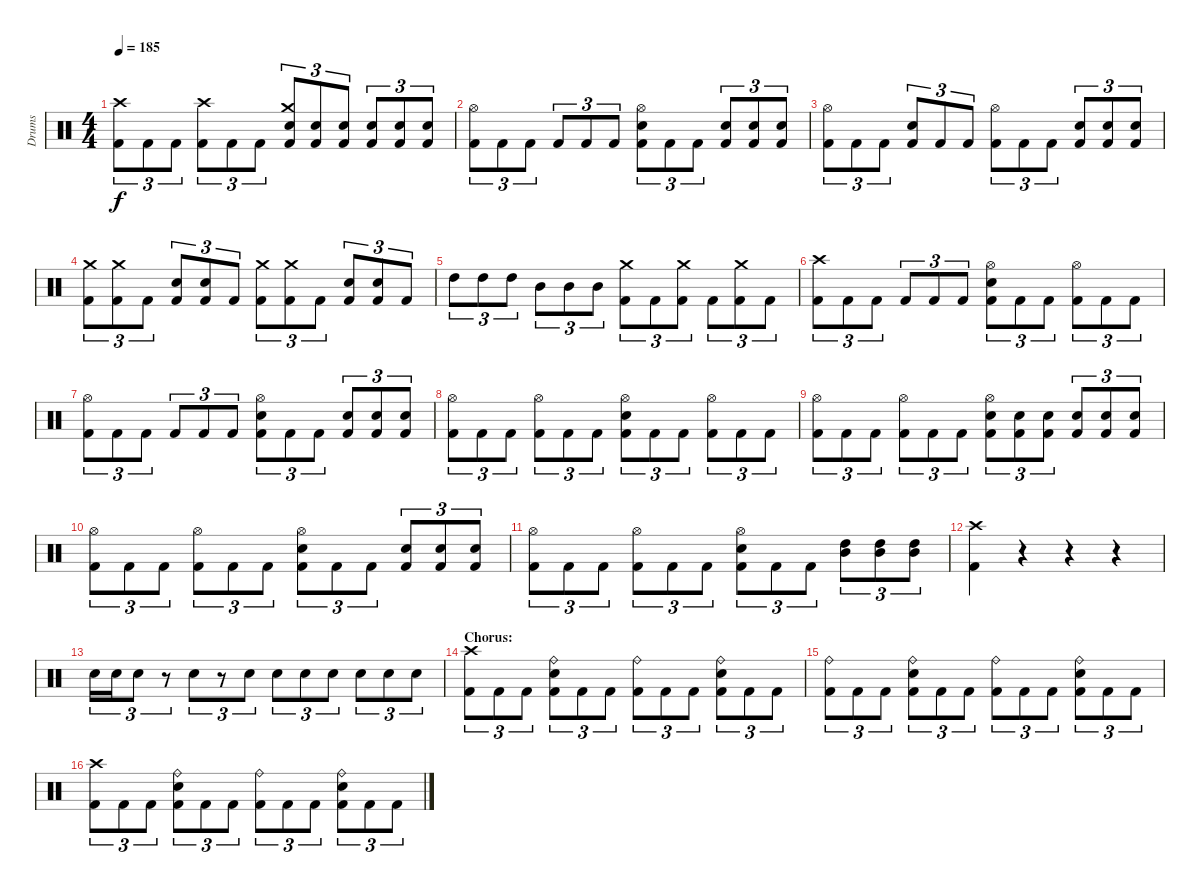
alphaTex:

\track ("Drums" "Drums") {instrument percussion}
\staff {score}
\articulation defaults
\ts (4 4)
\tempo 185
\clef neutral
\ks c
("Crash high (hit)" "Kick (hit) 2").8{tu (3 2) dy f} "Kick (hit) 2".8{tu (3 2)} "Kick (hit) 2".8{tu (3 2)} ("Crash high (hit)" "Kick (hit) 2").8{tu (3 2)} "Kick (hit) 2".8{tu (3 2)} "Kick (hit) 2".8{tu (3 2)} ("Crash medium (hit)" "Electric Snare (hit)" "Kick (hit) 2").8{tu (3 2)} ("Electric Snare (hit)" "Kick (hit) 2").8{tu (3 2)} ("Electric Snare (hit)" "Kick (hit) 2").8{tu (3 2)} ("Electric Snare (hit)" "Kick (hit) 2").8{tu (3 2)} ("Electric Snare (hit)" "Kick (hit) 2").8{tu (3 2)} ("Electric Snare (hit)" "Kick (hit) 2").8{tu (3 2)} |
("Hi-Hat (open)" "Kick (hit) 2").8{tu (3 2)} "Kick (hit) 2".8{tu (3 2)} "Kick (hit) 2".8{tu (3 2)} "Kick (hit) 2".8{tu (3 2)} "Kick (hit) 2".8{tu (3 2)} "Kick (hit) 2".8{tu (3 2)} ("Hi-Hat (open)" "Electric Snare (hit)" "Kick (hit) 2").8{tu (3 2)} "Kick (hit) 2".8{tu (3 2)} "Kick (hit) 2".8{tu (3 2)} ("Electric Snare (hit)" "Kick (hit) 2").8{tu (3 2)} ("Electric Snare (hit)" "Kick (hit) 2").8{tu (3 2)} ("Electric Snare (hit)" "Kick (hit) 2").8{tu (3 2)} |
("Hi-Hat (open)" "Kick (hit) 2").8{tu (3 2)} "Kick (hit) 2".8{tu (3 2)} "Kick (hit) 2".8{tu (3 2)} ("Electric Snare (hit)" "Kick (hit) 2").8{tu (3 2)} "Kick (hit) 2".8{tu (3 2)} "Kick (hit) 2".8{tu (3 2)} ("Hi-Hat (open)" "Kick (hit) 2").8{tu (3 2)} "Kick (hit) 2".8{tu (3 2)} "Kick (hit) 2".8{tu (3 2)} ("Electric Snare (hit)" "Kick (hit) 2").8{tu (3 2)} ("Electric Snare (hit)" "Kick (hit) 2").8{tu (3 2)} ("Electric Snare (hit)" "Kick (hit) 2").8{tu (3 2)} |
("Crash medium (hit)" "Kick (hit) 2").8{tu (3 2)} ("Crash medium (hit)" "Kick (hit) 2").8{tu (3 2)} "Kick (hit) 2".8{tu (3 2)} ("Electric Snare (hit)" "Kick (hit) 2").8{tu (3 2)} ("Electric Snare (hit)" "Kick (hit) 2").8{tu (3 2)} "Kick (hit) 2".8{tu (3 2)} ("Crash medium (hit)" "Kick (hit) 2").8{tu (3 2)} ("Crash medium (hit)" "Kick (hit) 2").8{tu (3 2)} "Kick (hit) 2".8{tu (3 2)} ("Electric Snare (hit)" "Kick (hit) 2").8{tu (3 2)} ("Electric Snare (hit)" "Kick (hit) 2").8{tu (3 2)} "Kick (hit) 2".8{tu (3 2)} |
"High Tom (hit)".8{tu (3 2)} "High Tom (hit)".8{tu (3 2)} "High Tom (hit)".8{tu (3 2)} "Mid Tom (hit)".8{tu (3 2)} "Mid Tom (hit)".8{tu (3 2)} "Mid Tom (hit)".8{tu (3 2)} ("Crash medium (hit)" "Kick (hit) 2").8{tu (3 2)} "Kick (hit) 2".8{tu (3 2)} ("Crash medium (hit)" "Kick (hit) 2").8{tu (3 2)} "Kick (hit) 2".8{tu (3 2)} ("Crash medium (hit)" "Kick (hit) 2").8{tu (3 2)} "Kick (hit) 2".8{tu (3 2)} |
("Crash high (hit)" "Kick (hit) 2").8{tu (3 2)} "Kick (hit) 2".8{tu (3 2)} "Kick (hit) 2".8{tu (3 2)} "Kick (hit) 2".8{tu (3 2)} "Kick (hit) 2".8{tu (3 2)} "Kick (hit) 2".8{tu (3 2)} ("Hi-Hat (open)" "Electric Snare (hit)" "Kick (hit) 2").8{tu (3 2)} "Kick (hit) 2".8{tu (3 2)} "Kick (hit) 2".8{tu (3 2)} ("Hi-Hat (open)" "Kick (hit) 2").8{tu (3 2)} "Kick (hit) 2".8{tu (3 2)} "Kick (hit) 2".8{tu (3 2)} |
("Hi-Hat (open)" "Kick (hit) 2").8{tu (3 2)} "Kick (hit) 2".8{tu (3 2)} "Kick (hit) 2".8{tu (3 2)} "Kick (hit) 2".8{tu (3 2)} "Kick (hit) 2".8{tu (3 2)} "Kick (hit) 2".8{tu (3 2)} ("Hi-Hat (open)" "Electric Snare (hit)" "Kick (hit) 2").8{tu (3 2)} "Kick (hit) 2".8{tu (3 2)} "Kick (hit) 2".8{tu (3 2)} ("Electric Snare (hit)" "Kick (hit) 2").8{tu (3 2)} ("Electric Snare (hit)" "Kick (hit) 2").8{tu (3 2)} ("Electric Snare (hit)" "Kick (hit) 2").8{tu (3 2)} |
("Hi-Hat (open)" "Kick (hit) 2").8{tu (3 2)} "Kick (hit) 2".8{tu (3 2)} "Kick (hit) 2".8{tu (3 2)} ("Hi-Hat (open)" "Kick (hit) 2").8{tu (3 2)} "Kick (hit) 2".8{tu (3 2)} "Kick (hit) 2".8{tu (3 2)} ("Hi-Hat (open)" "Electric Snare (hit)" "Kick (hit) 2").8{tu (3 2)} "Kick (hit) 2".8{tu (3 2)} "Kick (hit) 2".8{tu (3 2)} ("Hi-Hat (open)" "Kick (hit) 2").8{tu (3 2)} "Kick (hit) 2".8{tu (3 2)} "Kick (hit) 2".8{tu (3 2)} |
("Hi-Hat (open)" "Kick (hit) 2").8{tu (3 2)} "Kick (hit) 2".8{tu (3 2)} "Kick (hit) 2".8{tu (3 2)} ("Hi-Hat (open)" "Kick (hit) 2").8{tu (3 2)} "Kick (hit) 2".8{tu (3 2)} "Kick (hit) 2".8{tu (3 2)} ("Hi-Hat (open)" "Electric Snare (hit)" "Kick (hit) 2").8{tu (3 2)} ("Electric Snare (hit)" "Kick (hit) 2").8{tu (3 2)} ("Electric Snare (hit)" "Kick (hit) 2").8{tu (3 2)} ("Electric Snare (hit)" "Kick (hit) 2").8{tu (3 2)} ("Electric Snare (hit)" "Kick (hit) 2").8{tu (3 2)} ("Electric Snare (hit)" "Kick (hit) 2").8{tu (3 2)} |
("Hi-Hat (open)" "Kick (hit) 2").8{tu (3 2)} "Kick (hit) 2".8{tu (3 2)} "Kick (hit) 2".8{tu (3 2)} ("Hi-Hat (open)" "Kick (hit) 2").8{tu (3 2)} "Kick (hit) 2".8{tu (3 2)} "Kick (hit) 2".8{tu (3 2)} ("Hi-Hat (open)" "Electric Snare (hit)" "Kick (hit) 2").8{tu (3 2)} "Kick (hit) 2".8{tu (3 2)} "Kick (hit) 2".8{tu (3 2)} ("Electric Snare (hit)" "Kick (hit) 2").8{tu (3 2)} ("Electric Snare (hit)" "Kick (hit) 2").8{tu (3 2)} ("Electric Snare (hit)" "Kick (hit) 2").8{tu (3 2)} |
("Hi-Hat (open)" "Kick (hit) 2").8{tu (3 2)} "Kick (hit) 2".8{tu (3 2)} "Kick (hit) 2".8{tu (3 2)} ("Hi-Hat (open)" "Kick (hit) 2").8{tu (3 2)} "Kick (hit) 2".8{tu (3 2)} "Kick (hit) 2".8{tu (3 2)} ("Hi-Hat (open)" "Electric Snare (hit)" "Kick (hit) 2").8{tu (3 2)} "Kick (hit) 2".8{tu (3 2)} "Kick (hit) 2".8{tu (3 2)} ("High Tom (hit)" "Mid Tom (hit)").8{tu (3 2)} ("High Tom (hit)" "Mid Tom (hit)").8{tu (3 2)} ("High Tom (hit)" "Mid Tom (hit)").8{tu (3 2)} |
("Crash high (hit)" "Kick (hit) 2").4 r.4 r.4 r.4 |
"Electric Snare (hit)".16{tu (3 2)} "Electric Snare (hit)".16{tu (3 2)} "Electric Snare (hit)".8{tu (3 2)} r.8{tu (3 2)} "Electric Snare (hit)".8{tu (3 2)} r.8{tu (3 2)} "Electric Snare (hit)".8{tu (3 2)} "Electric Snare (hit)".8{tu (3 2)} "Electric Snare (hit)".8{tu (3 2)} "Electric Snare (hit)".8{tu (3 2)} "Electric Snare (hit)".8{tu (3 2)} "Electric Snare (hit)".8{tu (3 2)} "Electric Snare (hit)".8{tu (3 2)} |
\section ("" "Chorus:")
("Crash high (hit)" "Kick (hit) 2").8{tu (3 2)} "Kick (hit) 2".8{tu (3 2)} "Kick (hit) 2".8{tu (3 2)} ("Ride (bell)" "Electric Snare (hit)" "Kick (hit) 2").8{tu (3 2)} "Kick (hit) 2".8{tu (3 2)} "Kick (hit) 2".8{tu (3 2)} ("Ride (bell)" "Kick (hit) 2").8{tu (3 2)} "Kick (hit) 2".8{tu (3 2)} "Kick (hit) 2".8{tu (3 2)} ("Ride (bell)" "Electric Snare (hit)" "Kick (hit) 2").8{tu (3 2)} "Kick (hit) 2".8{tu (3 2)} "Kick (hit) 2".8{tu (3 2)} |
("Ride (bell)" "Kick (hit) 2").8{tu (3 2)} "Kick (hit) 2".8{tu (3 2)} "Kick (hit) 2".8{tu (3 2)} ("Ride (bell)" "Electric Snare (hit)" "Kick (hit) 2").8{tu (3 2)} "Kick (hit) 2".8{tu (3 2)} "Kick (hit) 2".8{tu (3 2)} ("Ride (bell)" "Kick (hit) 2").8{tu (3 2)} "Kick (hit) 2".8{tu (3 2)} "Kick (hit) 2".8{tu (3 2)} ("Ride (bell)" "Electric Snare (hit)" "Kick (hit) 2").8{tu (3 2)} "Kick (hit) 2".8{tu (3 2)} "Kick (hit) 2".8{tu (3 2)} |
("Crash high (hit)" "Kick (hit) 2").8{tu (3 2)} "Kick (hit) 2".8{tu (3 2)} "Kick (hit) 2".8{tu (3 2)} ("Ride (bell)" "Electric Snare (hit)" "Kick (hit) 2").8{tu (3 2)} "Kick (hit) 2".8{tu (3 2)} "Kick (hit) 2".8{tu (3 2)} ("Ride (bell)" "Kick (hit) 2").8{tu (3 2)} "Kick (hit) 2".8{tu (3 2)} "Kick (hit) 2".8{tu (3 2)} ("Ride (bell)" "Electric Snare (hit)" "Kick (hit) 2").8{tu (3 2)} "Kick (hit) 2".8{tu (3 2)} "Kick (hit) 2".8{tu (3 2)}
